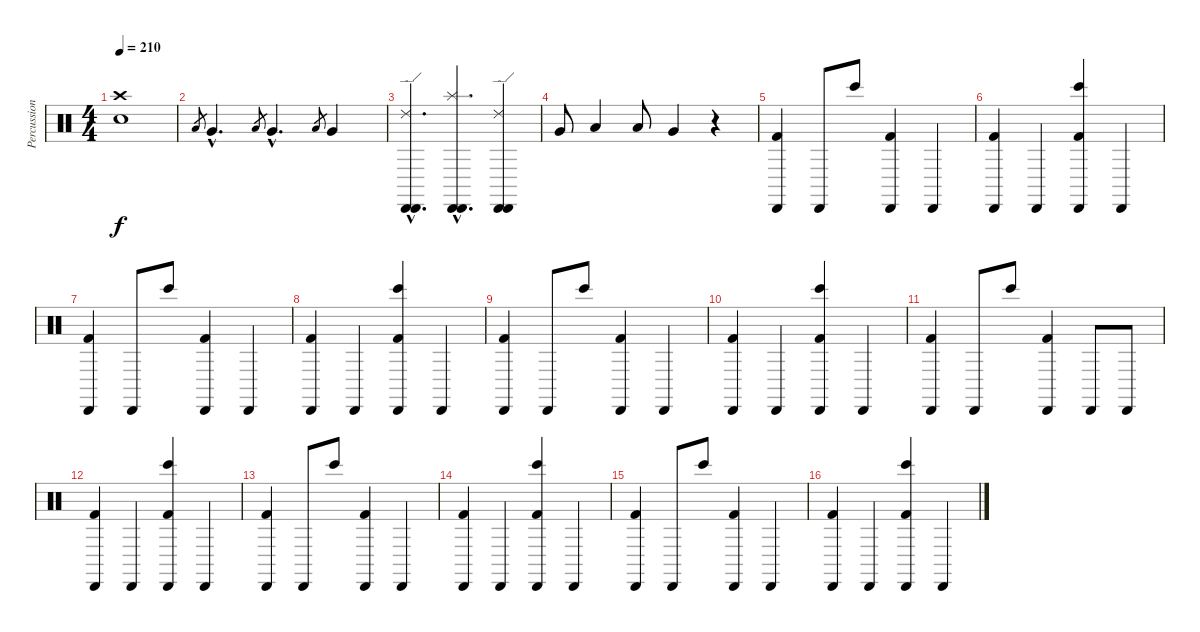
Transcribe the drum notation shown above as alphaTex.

\track ("Percussions" "Percussion") {instrument percussion}
\staff {score}
\articulation defaults
\ts (4 4)
\tempo 210
\clef neutral
\ks c
("Crash high (hit)" "Electric Snare (hit)").1{dy f volume 13} |
"Low Floor Tom (hit)".8{gr} "Very Low Tom (hit)"{hac}.4{d} "Low Floor Tom (hit)".8{gr} "Very Low Tom (hit)"{hac}.4{d} "Low Floor Tom (hit)".8{gr} "Very Low Tom (hit)".4 |
("Ride (edge) 2"{hac} "Cabasa (hit)"{hac} "Cabasa (hit)"{hac}).4{d} ("Splash (hit)"{hac} "Cabasa (hit)"{hac} "Cabasa (hit)"{hac}).4{d} ("Ride (edge) 2" "Cabasa (hit)" "Cabasa (hit)").4 |
"Very Low Tom (hit)".8 "Low Floor Tom (hit)".4 "Low Floor Tom (hit)".8 "Very Low Tom (hit)".4 r.4 |
("Kick (hit) 2" "Cabasa (hit)").4 "Cabasa (hit)".8 "Bongo High (hit)".8 ("Kick (hit) 2" "Cabasa (hit)").4 "Cabasa (hit)".4 |
("Kick (hit) 2" "Cabasa (hit)").4 "Cabasa (hit)".4 ("Bongo High (hit)" "Kick (hit) 2" "Cabasa (hit)").4 "Cabasa (hit)".4 |
("Kick (hit) 2" "Cabasa (hit)").4 "Cabasa (hit)".8 "Bongo High (hit)".8 ("Kick (hit) 2" "Cabasa (hit)").4 "Cabasa (hit)".4 |
("Kick (hit) 2" "Cabasa (hit)").4 "Cabasa (hit)".4 ("Bongo High (hit)" "Kick (hit) 2" "Cabasa (hit)").4 "Cabasa (hit)".4 |
("Kick (hit) 2" "Cabasa (hit)").4 "Cabasa (hit)".8 "Bongo High (hit)".8 ("Kick (hit) 2" "Cabasa (hit)").4 "Cabasa (hit)".4 |
("Kick (hit) 2" "Cabasa (hit)").4 "Cabasa (hit)".4 ("Bongo High (hit)" "Kick (hit) 2" "Cabasa (hit)").4 "Cabasa (hit)".4 |
("Kick (hit) 2" "Cabasa (hit)").4 "Cabasa (hit)".8 "Bongo High (hit)".8 ("Kick (hit) 2" "Cabasa (hit)").4 "Cabasa (hit)".8 "Cabasa (hit)".8 |
("Kick (hit) 2" "Cabasa (hit)").4 "Cabasa (hit)".4 ("Bongo High (hit)" "Kick (hit) 2" "Cabasa (hit)").4 "Cabasa (hit)".4 |
("Kick (hit) 2" "Cabasa (hit)").4 "Cabasa (hit)".8 "Bongo High (hit)".8 ("Kick (hit) 2" "Cabasa (hit)").4 "Cabasa (hit)".4 |
("Kick (hit) 2" "Cabasa (hit)").4 "Cabasa (hit)".4 ("Bongo High (hit)" "Kick (hit) 2" "Cabasa (hit)").4 "Cabasa (hit)".4 |
("Kick (hit) 2" "Cabasa (hit)").4 "Cabasa (hit)".8 "Bongo High (hit)".8 ("Kick (hit) 2" "Cabasa (hit)").4 "Cabasa (hit)".4 |
("Kick (hit) 2" "Cabasa (hit)").4 "Cabasa (hit)".4 ("Bongo High (hit)" "Kick (hit) 2" "Cabasa (hit)").4 "Cabasa (hit)".4
